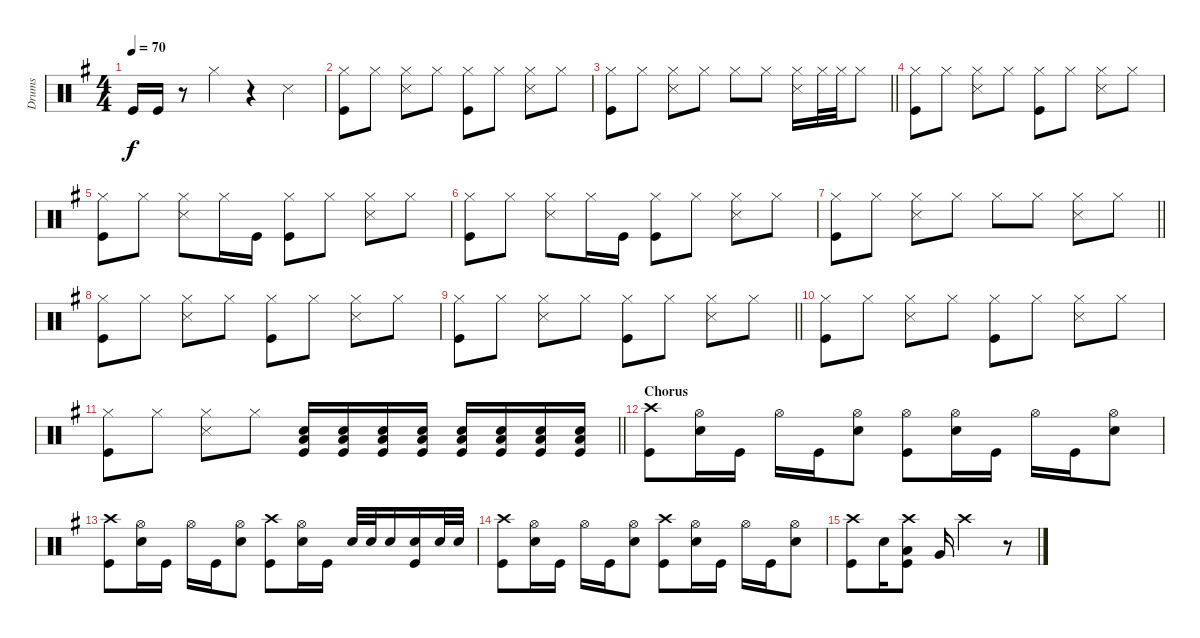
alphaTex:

\track ("Drums" "Drums") {instrument percussion}
\staff {score}
\articulation defaults
\ts (4 4)
\tempo 70
\clef neutral
\ks g "Kick (hit)".16{dy f} "Kick (hit)".16
r.8 "Hi-Hat (closed)".4 r.4 "Snare (side stick) 3".4 |
("Kick (hit)" "Hi-Hat (closed)").8 "Hi-Hat (closed)".8 ("Snare (side stick) 3" "Hi-Hat (closed)").8 "Hi-Hat (closed)".8 ("Kick (hit)" "Hi-Hat (closed)").8 "Hi-Hat (closed)".8 ("Snare (side stick) 3" "Hi-Hat (closed)").8 "Hi-Hat (closed)".8 |
\barLineRight lightlight
("Kick (hit)" "Hi-Hat (closed)").8 "Hi-Hat (closed)".8 ("Snare (side stick) 3" "Hi-Hat (closed)").8 "Hi-Hat (closed)".8 "Hi-Hat (closed)".8 "Hi-Hat (closed)".8 ("Snare (side stick) 3" "Hi-Hat (closed)").16 "Hi-Hat (closed)".32 "Hi-Hat (closed)".32 "Hi-Hat (closed)".8 |
("Hi-Hat (closed)" "Kick (hit)").8 "Hi-Hat (closed)".8 ("Snare (side stick) 3" "Hi-Hat (closed)").8 "Hi-Hat (closed)".8 ("Kick (hit)" "Hi-Hat (closed)").8 "Hi-Hat (closed)".8 ("Snare (side stick) 3" "Hi-Hat (closed)").8 "Hi-Hat (closed)".8 |
("Hi-Hat (closed)" "Kick (hit)").8 "Hi-Hat (closed)".8 ("Snare (side stick) 3" "Hi-Hat (closed)").8 "Hi-Hat (closed)".16 "Kick (hit)".16 ("Kick (hit)" "Hi-Hat (closed)").8 "Hi-Hat (closed)".8 ("Snare (side stick) 3" "Hi-Hat (closed)").8 "Hi-Hat (closed)".8 |
("Hi-Hat (closed)" "Kick (hit)").8 "Hi-Hat (closed)".8 ("Snare (side stick) 3" "Hi-Hat (closed)").8 "Hi-Hat (closed)".16 "Kick (hit)".16 ("Kick (hit)" "Hi-Hat (closed)").8 "Hi-Hat (closed)".8 ("Snare (side stick) 3" "Hi-Hat (closed)").8 "Hi-Hat (closed)".8 |
\barLineRight lightlight
("Hi-Hat (closed)" "Kick (hit)").8 "Hi-Hat (closed)".8 ("Snare (side stick) 3" "Hi-Hat (closed)").8 "Hi-Hat (closed)".8 "Hi-Hat (closed)".8 "Hi-Hat (closed)".8 ("Snare (side stick) 3" "Hi-Hat (closed)").8 "Hi-Hat (closed)".8 |
("Hi-Hat (closed)" "Kick (hit)").8 "Hi-Hat (closed)".8 ("Snare (side stick) 3" "Hi-Hat (closed)").8 "Hi-Hat (closed)".8 ("Kick (hit)" "Hi-Hat (closed)").8 "Hi-Hat (closed)".8 ("Snare (side stick) 3" "Hi-Hat (closed)").8 "Hi-Hat (closed)".8 |
\barLineRight lightlight
("Hi-Hat (closed)" "Kick (hit)").8 "Hi-Hat (closed)".8 ("Snare (side stick) 3" "Hi-Hat (closed)").8 "Hi-Hat (closed)".8 ("Kick (hit)" "Hi-Hat (closed)").8 "Hi-Hat (closed)".8 ("Snare (side stick) 3" "Hi-Hat (closed)").8 "Hi-Hat (closed)".8 |
("Hi-Hat (closed)" "Kick (hit)").8 "Hi-Hat (closed)".8 ("Snare (side stick) 3" "Hi-Hat (closed)").8 "Hi-Hat (closed)".8 ("Kick (hit)" "Hi-Hat (closed)").8 "Hi-Hat (closed)".8 ("Snare (side stick) 3" "Hi-Hat (closed)").8 "Hi-Hat (closed)".8 |
\barLineRight lightlight
("Hi-Hat (closed)" "Kick (hit)").8 "Hi-Hat (closed)".8 ("Snare (side stick) 3" "Hi-Hat (closed)").8 "Hi-Hat (closed)".8 ("Snare (hit) 2" "Kick (hit)" "Low Floor Tom (hit)").16{volume 1} ("Snare (hit) 2" "Kick (hit)" "Low Floor Tom (hit)").16{volume 13} ("Snare (hit) 2" "Kick (hit)" "Low Floor Tom (hit)").16 ("Snare (hit) 2" "Kick (hit)" "Low Floor Tom (hit)").16 ("Snare (hit) 2" "Kick (hit)" "Low Floor Tom (hit)").16 ("Snare (hit) 2" "Kick (hit)" "Low Floor Tom (hit)").16 ("Snare (hit) 2" "Kick (hit)" "Low Floor Tom (hit)").16 ("Snare (hit) 2" "Kick (hit)" "Low Floor Tom (hit)").16 |
\section ("" "Chorus")
("Kick (hit)" "Crash high (hit)").8 ("Hi-Hat (open)" "Snare (hit) 2").16 "Kick (hit)".16 "Hi-Hat (open)".16 "Kick (hit)".16 ("Hi-Hat (open)" "Snare (hit) 2").8 ("Kick (hit)" "Hi-Hat (open)").8 ("Hi-Hat (open)" "Snare (hit) 2").16 "Kick (hit)".16 "Hi-Hat (open)".16 "Kick (hit)".16 ("Hi-Hat (open)" "Snare (hit) 2").8 |
("Kick (hit)" "Crash high (hit)").8 ("Hi-Hat (open)" "Snare (hit) 2").16 "Kick (hit)".16 "Hi-Hat (open)".16 "Kick (hit)".16 ("Hi-Hat (open)" "Snare (hit) 2").8 ("Crash high (hit)" "Kick (hit)").8 ("Hi-Hat (open)" "Snare (hit) 2").16 "Kick (hit)".16 "Snare (hit) 2".32 "Snare (hit) 2".32 "Snare (hit) 2".16 ("Snare (hit) 2" "Kick (hit)").16 "Snare (hit) 2".32 "Snare (hit) 2".32 |
("Kick (hit)" "Crash high (hit)").8 ("Hi-Hat (open)" "Snare (hit) 2").16 "Kick (hit)".16 "Hi-Hat (open)".16 "Kick (hit)".16 ("Hi-Hat (open)" "Snare (hit) 2").8 ("Kick (hit)" "Crash high (hit)").8 ("Hi-Hat (open)" "Snare (hit) 2").16 "Kick (hit)".16 "Hi-Hat (open)".16 "Kick (hit)".16 ("Hi-Hat (open)" "Snare (hit) 2").8 |
("Crash high (hit)" "Kick (hit)").8 "Snare (hit) 2".16 ("Crash high (hit)" "Kick (hit)" "Low Tom (hit)").8 "Very Low Tom (hit)".16 "Crash high (hit)".2 r.8
